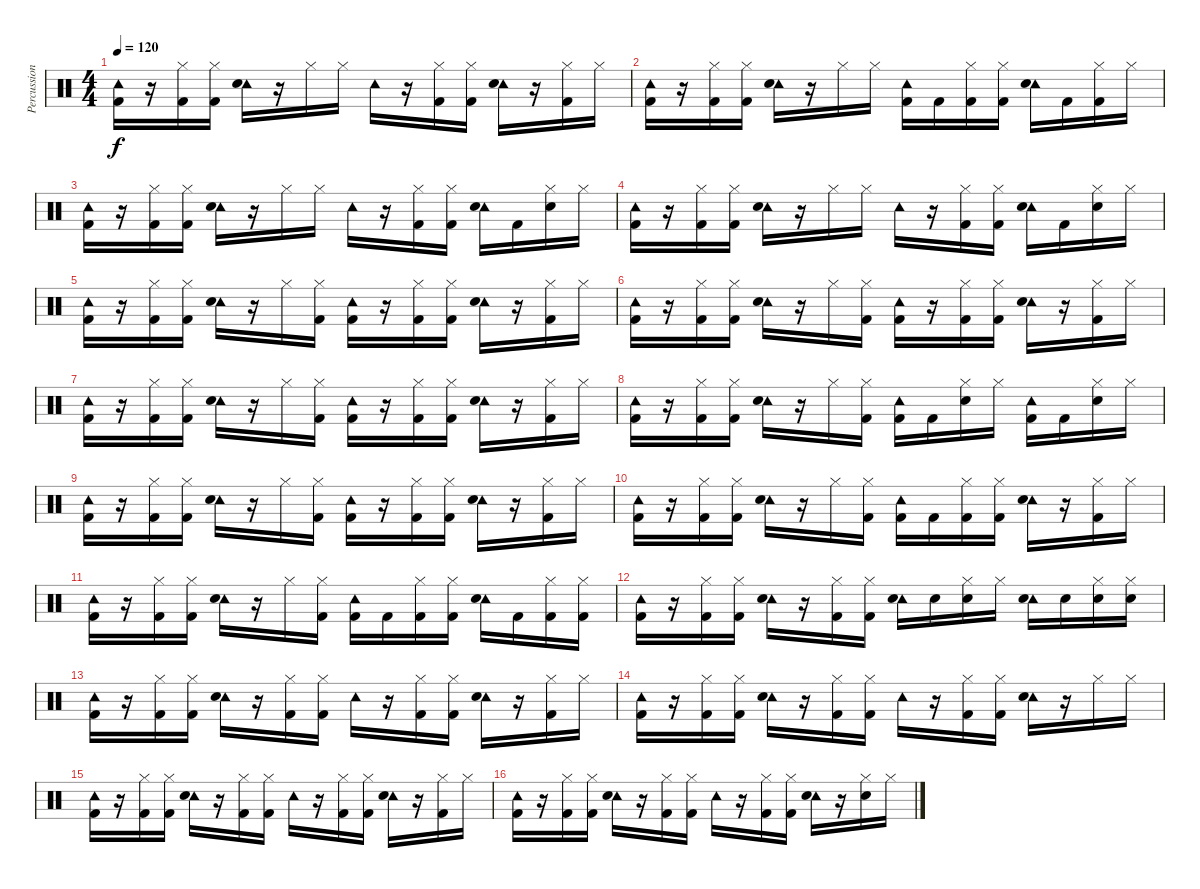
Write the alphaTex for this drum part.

\track ("Percussion" "Percussion") {instrument percussion}
\staff {score}
\articulation defaults
\ts (4 4)
\tempo 120
\clef neutral
\ks c
("Tambourine (hit)" "Kick (hit) 2").16{dy f} r.16 ("Hi-Hat (closed)" "Kick (hit) 2").16 ("Hi-Hat (closed)" "Kick (hit) 2").16 ("Tambourine (hit)" "Electric Snare (hit)").16 r.16 "Hi-Hat (closed)".16 "Hi-Hat (closed)".16 "Tambourine (hit)".16 r.16 ("Hi-Hat (closed)" "Kick (hit) 2").16 ("Hi-Hat (closed)" "Kick (hit) 2").16 ("Tambourine (hit)" "Electric Snare (hit)").16 r.16 ("Hi-Hat (closed)" "Kick (hit) 2").16 "Hi-Hat (closed)".16 |
("Tambourine (hit)" "Kick (hit) 2").16 r.16 ("Hi-Hat (closed)" "Kick (hit) 2").16 ("Hi-Hat (closed)" "Kick (hit) 2").16 ("Tambourine (hit)" "Electric Snare (hit)").16 r.16 "Hi-Hat (closed)".16 "Hi-Hat (closed)".16 ("Tambourine (hit)" "Kick (hit) 2").16 "Kick (hit) 2".16 ("Hi-Hat (closed)" "Kick (hit) 2").16 ("Hi-Hat (closed)" "Kick (hit) 2").16 ("Tambourine (hit)" "Electric Snare (hit)").16 "Kick (hit) 2".16 ("Hi-Hat (closed)" "Kick (hit) 2").16 "Hi-Hat (closed)".16 |
("Tambourine (hit)" "Kick (hit) 2").16 r.16 ("Hi-Hat (closed)" "Kick (hit) 2").16 ("Hi-Hat (closed)" "Kick (hit) 2").16 ("Tambourine (hit)" "Electric Snare (hit)").16 r.16 "Hi-Hat (closed)".16 "Hi-Hat (closed)".16 "Tambourine (hit)".16 r.16 ("Hi-Hat (closed)" "Kick (hit) 2").16 ("Hi-Hat (closed)" "Kick (hit) 2").16 ("Tambourine (hit)" "Electric Snare (hit)").16 "Kick (hit) 2".16 ("Hi-Hat (closed)" "Electric Snare (hit)").16 "Hi-Hat (closed)".16 |
("Tambourine (hit)" "Kick (hit) 2").16 r.16 ("Hi-Hat (closed)" "Kick (hit) 2").16 ("Hi-Hat (closed)" "Kick (hit) 2").16 ("Tambourine (hit)" "Electric Snare (hit)").16 r.16 "Hi-Hat (closed)".16 "Hi-Hat (closed)".16 "Tambourine (hit)".16 r.16 ("Hi-Hat (closed)" "Kick (hit) 2").16 ("Hi-Hat (closed)" "Kick (hit) 2").16 ("Tambourine (hit)" "Electric Snare (hit)").16 "Kick (hit) 2".16 ("Hi-Hat (closed)" "Electric Snare (hit)").16 "Hi-Hat (closed)".16 |
("Tambourine (hit)" "Kick (hit) 2").16 r.16 ("Hi-Hat (closed)" "Kick (hit) 2").16 ("Hi-Hat (closed)" "Kick (hit) 2").16 ("Tambourine (hit)" "Electric Snare (hit)").16 r.16 "Hi-Hat (closed)".16 ("Hi-Hat (closed)" "Kick (hit) 2").16 ("Tambourine (hit)" "Kick (hit) 2").16 r.16 ("Hi-Hat (closed)" "Kick (hit) 2").16 ("Hi-Hat (closed)" "Kick (hit) 2").16 ("Tambourine (hit)" "Electric Snare (hit)").16 r.16 ("Hi-Hat (closed)" "Kick (hit) 2").16 "Hi-Hat (closed)".16 |
("Tambourine (hit)" "Kick (hit) 2").16 r.16 ("Hi-Hat (closed)" "Kick (hit) 2").16 ("Hi-Hat (closed)" "Kick (hit) 2").16 ("Tambourine (hit)" "Electric Snare (hit)").16 r.16 "Hi-Hat (closed)".16 ("Hi-Hat (closed)" "Kick (hit) 2").16 ("Tambourine (hit)" "Kick (hit) 2").16 r.16 ("Hi-Hat (closed)" "Kick (hit) 2").16 ("Hi-Hat (closed)" "Kick (hit) 2").16 ("Tambourine (hit)" "Electric Snare (hit)").16 r.16 ("Hi-Hat (closed)" "Kick (hit) 2").16 "Hi-Hat (closed)".16 |
("Tambourine (hit)" "Kick (hit) 2").16 r.16 ("Hi-Hat (closed)" "Kick (hit) 2").16 ("Hi-Hat (closed)" "Kick (hit) 2").16 ("Tambourine (hit)" "Electric Snare (hit)").16 r.16 "Hi-Hat (closed)".16 ("Hi-Hat (closed)" "Kick (hit) 2").16 ("Tambourine (hit)" "Kick (hit) 2").16 r.16 ("Hi-Hat (closed)" "Kick (hit) 2").16 ("Hi-Hat (closed)" "Kick (hit) 2").16 ("Tambourine (hit)" "Electric Snare (hit)").16 r.16 ("Hi-Hat (closed)" "Kick (hit) 2").16 "Hi-Hat (closed)".16 |
("Tambourine (hit)" "Kick (hit) 2").16 r.16 ("Hi-Hat (closed)" "Kick (hit) 2").16 ("Hi-Hat (closed)" "Kick (hit) 2").16 ("Tambourine (hit)" "Electric Snare (hit)").16 r.16 "Hi-Hat (closed)".16 ("Hi-Hat (closed)" "Kick (hit) 2").16 ("Tambourine (hit)" "Kick (hit) 2").16 "Kick (hit) 2".16 ("Hi-Hat (closed)" "Electric Snare (hit)").16 "Hi-Hat (closed)".16 ("Tambourine (hit)" "Kick (hit) 2").16 "Kick (hit) 2".16 ("Hi-Hat (closed)" "Electric Snare (hit)").16 "Hi-Hat (closed)".16 |
("Tambourine (hit)" "Kick (hit) 2").16 r.16 ("Hi-Hat (closed)" "Kick (hit) 2").16 ("Hi-Hat (closed)" "Kick (hit) 2").16 ("Tambourine (hit)" "Electric Snare (hit)").16 r.16 "Hi-Hat (closed)".16 ("Hi-Hat (closed)" "Kick (hit) 2").16 ("Tambourine (hit)" "Kick (hit) 2").16 r.16 ("Hi-Hat (closed)" "Kick (hit) 2").16 ("Hi-Hat (closed)" "Kick (hit) 2").16 ("Tambourine (hit)" "Electric Snare (hit)").16 r.16 ("Hi-Hat (closed)" "Kick (hit) 2").16 "Hi-Hat (closed)".16 |
("Tambourine (hit)" "Kick (hit) 2").16 r.16 ("Hi-Hat (closed)" "Kick (hit) 2").16 ("Hi-Hat (closed)" "Kick (hit) 2").16 ("Tambourine (hit)" "Electric Snare (hit)").16 r.16 "Hi-Hat (closed)".16 ("Hi-Hat (closed)" "Kick (hit) 2").16 ("Tambourine (hit)" "Kick (hit) 2").16 "Kick (hit) 2".16 ("Hi-Hat (closed)" "Kick (hit) 2").16 ("Hi-Hat (closed)" "Kick (hit) 2").16 ("Tambourine (hit)" "Electric Snare (hit)").16 r.16 ("Hi-Hat (closed)" "Kick (hit) 2").16 "Hi-Hat (closed)".16 |
("Tambourine (hit)" "Kick (hit) 2").16 r.16 ("Hi-Hat (closed)" "Kick (hit) 2").16 ("Hi-Hat (closed)" "Kick (hit) 2").16 ("Tambourine (hit)" "Electric Snare (hit)").16 r.16 "Hi-Hat (closed)".16 ("Hi-Hat (closed)" "Kick (hit) 2").16 ("Tambourine (hit)" "Kick (hit) 2").16 "Kick (hit) 2".16 ("Hi-Hat (closed)" "Kick (hit) 2").16 ("Hi-Hat (closed)" "Kick (hit) 2").16 ("Tambourine (hit)" "Electric Snare (hit)").16 "Kick (hit) 2".16 ("Hi-Hat (closed)" "Kick (hit) 2").16 ("Hi-Hat (closed)" "Kick (hit) 2").16 |
("Tambourine (hit)" "Kick (hit) 2").16 r.16 ("Hi-Hat (closed)" "Kick (hit) 2").16 ("Hi-Hat (closed)" "Kick (hit) 2").16 ("Tambourine (hit)" "Electric Snare (hit)").16 r.16 ("Hi-Hat (closed)" "Kick (hit) 2").16 ("Hi-Hat (closed)" "Kick (hit) 2").16 ("Tambourine (hit)" "Electric Snare (hit)").16 "Electric Snare (hit)".16 ("Hi-Hat (closed)" "Electric Snare (hit)").16 "Hi-Hat (closed)".16 ("Tambourine (hit)" "Electric Snare (hit)").16 "Electric Snare (hit)".16 ("Hi-Hat (closed)" "Electric Snare (hit)").16 ("Hi-Hat (closed)" "Electric Snare (hit)").16 |
("Tambourine (hit)" "Kick (hit) 2").16 r.16 ("Hi-Hat (closed)" "Kick (hit) 2").16 ("Hi-Hat (closed)" "Kick (hit) 2").16 ("Tambourine (hit)" "Electric Snare (hit)").16 r.16 ("Hi-Hat (closed)" "Kick (hit) 2").16 ("Hi-Hat (closed)" "Kick (hit) 2").16 "Tambourine (hit)".16 r.16 ("Hi-Hat (closed)" "Kick (hit) 2").16 ("Hi-Hat (closed)" "Kick (hit) 2").16 ("Tambourine (hit)" "Electric Snare (hit)").16 r.16 ("Hi-Hat (closed)" "Kick (hit) 2").16 "Hi-Hat (closed)".16 |
("Tambourine (hit)" "Kick (hit) 2").16 r.16 ("Hi-Hat (closed)" "Kick (hit) 2").16 ("Hi-Hat (closed)" "Kick (hit) 2").16 ("Tambourine (hit)" "Electric Snare (hit)").16 r.16 ("Hi-Hat (closed)" "Kick (hit) 2").16 ("Hi-Hat (closed)" "Kick (hit) 2").16 "Tambourine (hit)".16 r.16 ("Hi-Hat (closed)" "Kick (hit) 2").16 ("Hi-Hat (closed)" "Kick (hit) 2").16 ("Tambourine (hit)" "Electric Snare (hit)").16 r.16 "Hi-Hat (closed)".16 "Hi-Hat (closed)".16 |
("Tambourine (hit)" "Kick (hit) 2").16 r.16 ("Hi-Hat (closed)" "Kick (hit) 2").16 ("Hi-Hat (closed)" "Kick (hit) 2").16 ("Tambourine (hit)" "Electric Snare (hit)").16 r.16 ("Hi-Hat (closed)" "Kick (hit) 2").16 ("Hi-Hat (closed)" "Kick (hit) 2").16 "Tambourine (hit)".16 r.16 ("Hi-Hat (closed)" "Kick (hit) 2").16 ("Hi-Hat (closed)" "Kick (hit) 2").16 ("Tambourine (hit)" "Electric Snare (hit)").16 r.16 ("Hi-Hat (closed)" "Kick (hit) 2").16 "Hi-Hat (closed)".16 |
("Tambourine (hit)" "Kick (hit) 2").16 r.16 ("Hi-Hat (closed)" "Kick (hit) 2").16 ("Hi-Hat (closed)" "Kick (hit) 2").16 ("Tambourine (hit)" "Electric Snare (hit)").16 r.16 ("Hi-Hat (closed)" "Kick (hit) 2").16 ("Hi-Hat (closed)" "Kick (hit) 2").16 "Tambourine (hit)".16 r.16 ("Hi-Hat (closed)" "Kick (hit) 2").16 ("Hi-Hat (closed)" "Kick (hit) 2").16 ("Tambourine (hit)" "Electric Snare (hit)").16 r.16 ("Hi-Hat (closed)" "Electric Snare (hit)").16 "Hi-Hat (closed)".16
